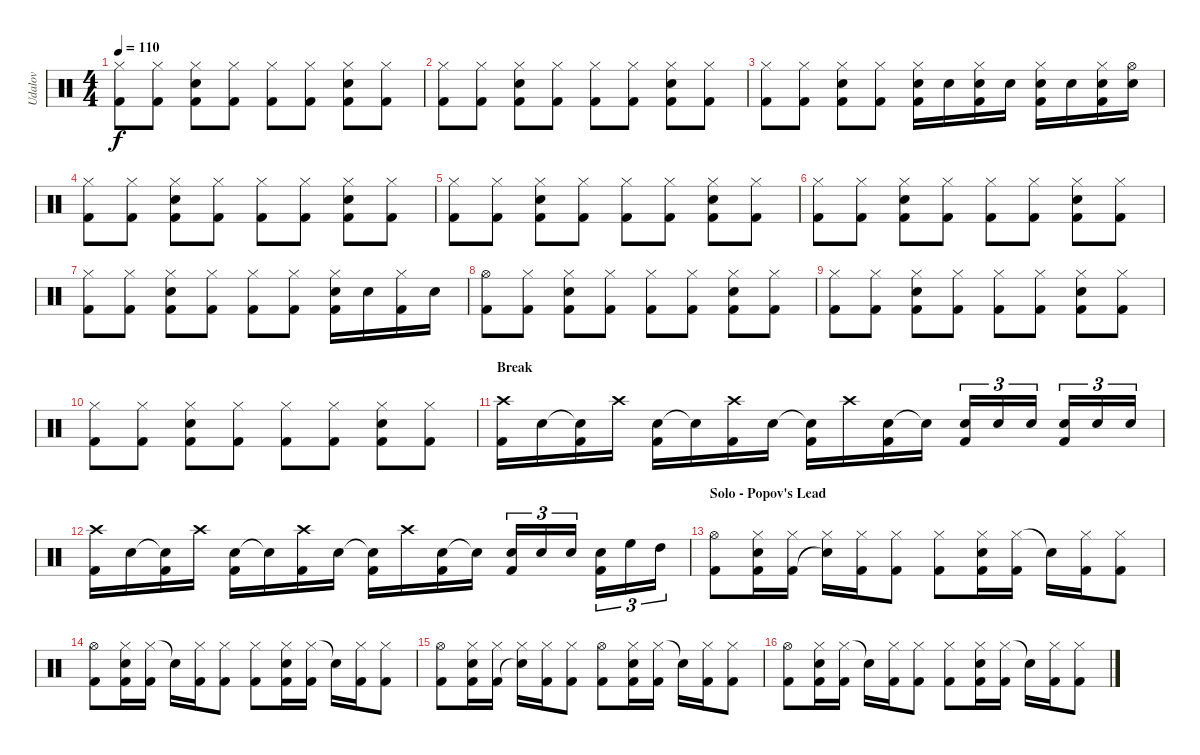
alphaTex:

\track ("Udalov" "Udalov") {instrument percussion}
\staff {score}
\articulation defaults
\ts (4 4)
\tempo 110
\clef neutral
\ks c
("Hi-Hat (closed)" "Kick (hit) 2").8{dy f} ("Hi-Hat (closed)" "Kick (hit) 2").8 ("Hi-Hat (closed)" "Snare (hit) 2" "Kick (hit) 2").8 ("Hi-Hat (closed)" "Kick (hit) 2").8 ("Hi-Hat (closed)" "Kick (hit) 2").8 ("Hi-Hat (closed)" "Kick (hit) 2").8 ("Hi-Hat (closed)" "Snare (hit) 2" "Kick (hit) 2").8 ("Hi-Hat (closed)" "Kick (hit) 2").8 |
("Hi-Hat (closed)" "Kick (hit) 2").8 ("Hi-Hat (closed)" "Kick (hit) 2").8 ("Hi-Hat (closed)" "Snare (hit) 2" "Kick (hit) 2").8 ("Hi-Hat (closed)" "Kick (hit) 2").8 ("Hi-Hat (closed)" "Kick (hit) 2").8 ("Hi-Hat (closed)" "Kick (hit) 2").8 ("Hi-Hat (closed)" "Snare (hit) 2" "Kick (hit) 2").8 ("Hi-Hat (closed)" "Kick (hit) 2").8 |
("Hi-Hat (closed)" "Kick (hit) 2").8 ("Hi-Hat (closed)" "Kick (hit) 2").8 ("Hi-Hat (closed)" "Snare (hit) 2" "Kick (hit) 2").8 ("Hi-Hat (closed)" "Kick (hit) 2").8 ("Hi-Hat (closed)" "Snare (hit) 2" "Kick (hit) 2").16 "Snare (hit) 2".16 ("Hi-Hat (closed)" "Snare (hit) 2" "Kick (hit) 2").16 "Snare (hit) 2".16 ("Hi-Hat (closed)" "Snare (hit) 2" "Kick (hit) 2").16 "Snare (hit) 2".16 ("Hi-Hat (closed)" "Snare (hit) 2" "Kick (hit) 2").16 ("Hi-Hat (open)" "Snare (hit) 2").16 |
("Hi-Hat (closed)" "Kick (hit) 2").8 ("Hi-Hat (closed)" "Kick (hit) 2").8 ("Hi-Hat (closed)" "Snare (hit) 2" "Kick (hit) 2").8 ("Hi-Hat (closed)" "Kick (hit) 2").8 ("Hi-Hat (closed)" "Kick (hit) 2").8 ("Hi-Hat (closed)" "Kick (hit) 2").8 ("Hi-Hat (closed)" "Snare (hit) 2" "Kick (hit) 2").8 ("Hi-Hat (closed)" "Kick (hit) 2").8 |
("Hi-Hat (closed)" "Kick (hit) 2").8 ("Hi-Hat (closed)" "Kick (hit) 2").8 ("Hi-Hat (closed)" "Snare (hit) 2" "Kick (hit) 2").8 ("Hi-Hat (closed)" "Kick (hit) 2").8 ("Hi-Hat (closed)" "Kick (hit) 2").8 ("Hi-Hat (closed)" "Kick (hit) 2").8 ("Hi-Hat (closed)" "Snare (hit) 2" "Kick (hit) 2").8 ("Hi-Hat (closed)" "Kick (hit) 2").8 |
("Hi-Hat (closed)" "Kick (hit) 2").8 ("Hi-Hat (closed)" "Kick (hit) 2").8 ("Hi-Hat (closed)" "Snare (hit) 2" "Kick (hit) 2").8 ("Hi-Hat (closed)" "Kick (hit) 2").8 ("Hi-Hat (closed)" "Kick (hit) 2").8 ("Hi-Hat (closed)" "Kick (hit) 2").8 ("Hi-Hat (closed)" "Snare (hit) 2" "Kick (hit) 2").8 ("Hi-Hat (closed)" "Kick (hit) 2").8 |
("Hi-Hat (closed)" "Kick (hit) 2").8 ("Hi-Hat (closed)" "Kick (hit) 2").8 ("Hi-Hat (closed)" "Snare (hit) 2" "Kick (hit) 2").8 ("Hi-Hat (closed)" "Kick (hit) 2").8 ("Hi-Hat (closed)" "Kick (hit) 2").8 ("Hi-Hat (closed)" "Kick (hit) 2").8 ("Hi-Hat (closed)" "Snare (hit) 2" "Kick (hit) 2").16 "Snare (hit) 2".16 ("Hi-Hat (closed)" "Kick (hit) 2").16 "Snare (hit) 2".16 |
("Hi-Hat (open)" "Kick (hit) 2").8 ("Hi-Hat (closed)" "Kick (hit) 2").8 ("Hi-Hat (closed)" "Snare (hit) 2" "Kick (hit) 2").8 ("Hi-Hat (closed)" "Kick (hit) 2").8 ("Hi-Hat (closed)" "Kick (hit) 2").8 ("Hi-Hat (closed)" "Kick (hit) 2").8 ("Hi-Hat (closed)" "Snare (hit) 2" "Kick (hit) 2").8 ("Hi-Hat (closed)" "Kick (hit) 2").8 |
("Hi-Hat (closed)" "Kick (hit) 2").8 ("Hi-Hat (closed)" "Kick (hit) 2").8 ("Hi-Hat (closed)" "Snare (hit) 2" "Kick (hit) 2").8 ("Hi-Hat (closed)" "Kick (hit) 2").8 ("Hi-Hat (closed)" "Kick (hit) 2").8 ("Hi-Hat (closed)" "Kick (hit) 2").8 ("Hi-Hat (closed)" "Snare (hit) 2" "Kick (hit) 2").8 ("Hi-Hat (closed)" "Kick (hit) 2").8 |
("Hi-Hat (closed)" "Kick (hit) 2").8 ("Hi-Hat (closed)" "Kick (hit) 2").8 ("Hi-Hat (closed)" "Snare (hit) 2" "Kick (hit) 2").8 ("Hi-Hat (closed)" "Kick (hit) 2").8 ("Hi-Hat (closed)" "Kick (hit) 2").8 ("Hi-Hat (closed)" "Kick (hit) 2").8 ("Hi-Hat (closed)" "Snare (hit) 2" "Kick (hit) 2").8 ("Hi-Hat (closed)" "Kick (hit) 2").8 |
\section ("" "Break")
("Crash high (hit)" "Kick (hit) 2").16 "Snare (hit) 2".16 ("Electric Snare (hit)"{t} "Kick (hit) 2").16 "Crash high (hit)".16 ("Snare (hit) 2" "Kick (hit) 2").16 "Electric Snare (hit)"{t}.16 ("Crash high (hit)" "Kick (hit) 2").16 "Snare (hit) 2".16 ("Electric Snare (hit)"{t} "Kick (hit) 2").16 "Crash high (hit)".16 ("Snare (hit) 2" "Kick (hit) 2").16 "Snare (hit)"{t}.16 ("Snare (hit) 2" "Kick (hit) 2").16{tu (3 2)} "Snare (hit) 2".16{tu (3 2)} "Snare (hit) 2".16{tu (3 2)} ("Snare (hit) 2" "Kick (hit) 2").16{tu (3 2)} "Snare (hit) 2".16{tu (3 2)} "Snare (hit) 2".16{tu (3 2)} |
("Crash high (hit)" "Kick (hit) 2").16 "Snare (hit) 2".16 ("Electric Snare (hit)"{t} "Kick (hit) 2").16 "Crash high (hit)".16 ("Snare (hit) 2" "Kick (hit) 2").16 "Electric Snare (hit)"{t}.16 ("Crash high (hit)" "Kick (hit) 2").16 "Snare (hit) 2".16 ("Electric Snare (hit)"{t} "Kick (hit) 2").16 "Crash high (hit)".16 ("Snare (hit) 2" "Kick (hit) 2").16 "Snare (hit)"{t}.16 ("Snare (hit) 2" "Kick (hit) 2").16{tu (3 2)} "Snare (hit) 2".16{tu (3 2)} "Snare (hit) 2".16{tu (3 2)} ("Snare (hit) 2" "Kick (hit) 2").16{tu (3 2)} "High Floor Tom (hit)".16{tu (3 2)} "High Tom (hit)".16{tu (3 2)} |
\section ("" "Solo - Popov's Lead")
("Hi-Hat (open)" "Kick (hit) 2").8 ("Hi-Hat (closed)" "Snare (hit) 2" "Kick (hit) 2").16 ("Hi-Hat (closed)" "Kick (hit) 2").16 ("Hi-Hat (closed)" "Snare (hit)"{t}).16 ("Hi-Hat (closed)" "Kick (hit) 2").16 ("Hi-Hat (closed)" "Kick (hit) 2").8 ("Hi-Hat (closed)" "Kick (hit) 2").8 ("Hi-Hat (closed)" "Snare (hit) 2" "Kick (hit) 2").16 ("Hi-Hat (closed)" "Kick (hit) 2").16 "Snare (hit)"{t}.16 ("Hi-Hat (closed)" "Kick (hit) 2").16 ("Hi-Hat (closed)" "Kick (hit) 2").8 |
("Hi-Hat (open)" "Kick (hit) 2").8 ("Hi-Hat (closed)" "Snare (hit) 2" "Kick (hit) 2").16 ("Hi-Hat (closed)" "Kick (hit) 2").16 "Snare (hit)"{t}.16 ("Hi-Hat (closed)" "Kick (hit) 2").16 ("Hi-Hat (closed)" "Kick (hit) 2").8 ("Hi-Hat (closed)" "Kick (hit) 2").8 ("Hi-Hat (closed)" "Snare (hit) 2" "Kick (hit) 2").16 ("Hi-Hat (closed)" "Kick (hit) 2").16 "Snare (hit)"{t}.16 ("Hi-Hat (closed)" "Kick (hit) 2").16 ("Hi-Hat (closed)" "Kick (hit) 2").8 |
("Hi-Hat (open)" "Kick (hit) 2").8 ("Hi-Hat (closed)" "Snare (hit) 2" "Kick (hit) 2").16 ("Hi-Hat (closed)" "Kick (hit) 2").16 ("Hi-Hat (closed)" "Snare (hit)"{t}).16 ("Hi-Hat (closed)" "Kick (hit) 2").16 ("Hi-Hat (closed)" "Kick (hit) 2").8 ("Hi-Hat (open)" "Kick (hit) 2").8 ("Hi-Hat (closed)" "Snare (hit) 2" "Kick (hit) 2").16 ("Hi-Hat (closed)" "Kick (hit) 2").16 "Snare (hit)"{t}.16 ("Hi-Hat (closed)" "Kick (hit) 2").16 ("Hi-Hat (closed)" "Kick (hit) 2").8 |
("Hi-Hat (open)" "Kick (hit) 2").8 ("Hi-Hat (closed)" "Snare (hit) 2" "Kick (hit) 2").16 ("Hi-Hat (closed)" "Kick (hit) 2").16 "Snare (hit)"{t}.16 ("Hi-Hat (closed)" "Kick (hit) 2").16 ("Hi-Hat (closed)" "Kick (hit) 2").8 ("Hi-Hat (closed)" "Kick (hit) 2").8 ("Hi-Hat (closed)" "Snare (hit) 2" "Kick (hit) 2").16 ("Hi-Hat (closed)" "Kick (hit) 2").16 "Snare (hit)"{t}.16 ("Hi-Hat (closed)" "Kick (hit) 2").16 ("Hi-Hat (closed)" "Kick (hit) 2").8
